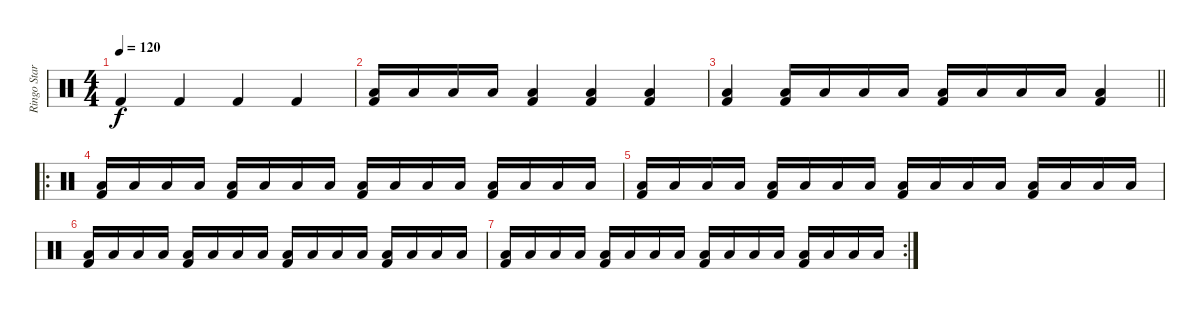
\track ("Ringo Star's drums" "Ringo Star") {instrument percussion}
\staff {score}
\articulation defaults
\ts (4 4)
\tempo 120
\clef neutral
\ks c "Kick (hit) 2".4{dy f} "Kick (hit) 2".4 "Kick (hit) 2".4 "Kick (hit) 2".4
|
("Low Floor Tom (hit)" "Kick (hit) 2").16 "Low Floor Tom (hit)".16 "Low Floor Tom (hit)".16 "Low Floor Tom (hit)".16 ("Low Floor Tom (hit)" "Kick (hit) 2").4 ("Low Floor Tom (hit)" "Kick (hit) 2").4 ("Low Floor Tom (hit)" "Kick (hit) 2").4 |
\barLineRight lightlight
("Low Floor Tom (hit)" "Kick (hit) 2").4 ("Low Floor Tom (hit)" "Kick (hit) 2").16 "Low Floor Tom (hit)".16 "Low Floor Tom (hit)".16 "Low Floor Tom (hit)".16 ("Low Floor Tom (hit)" "Kick (hit) 2").16 "Low Floor Tom (hit)".16 "Low Floor Tom (hit)".16 "Low Floor Tom (hit)".16 ("Low Floor Tom (hit)" "Kick (hit) 2").4 |
\ro
("Low Floor Tom (hit)" "Kick (hit) 2").16 "Low Floor Tom (hit)".16 "Low Floor Tom (hit)".16 "Low Floor Tom (hit)".16 ("Low Floor Tom (hit)" "Kick (hit) 2").16 "Low Floor Tom (hit)".16 "Low Floor Tom (hit)".16 "Low Floor Tom (hit)".16 ("Low Floor Tom (hit)" "Kick (hit) 2").16 "Low Floor Tom (hit)".16 "Low Floor Tom (hit)".16 "Low Floor Tom (hit)".16 ("Low Floor Tom (hit)" "Kick (hit) 2").16 "Low Floor Tom (hit)".16 "Low Floor Tom (hit)".16 "Low Floor Tom (hit)".16 |
("Low Floor Tom (hit)" "Kick (hit) 2").16 "Low Floor Tom (hit)".16 "Low Floor Tom (hit)".16 "Low Floor Tom (hit)".16 ("Low Floor Tom (hit)" "Kick (hit) 2").16 "Low Floor Tom (hit)".16 "Low Floor Tom (hit)".16 "Low Floor Tom (hit)".16 ("Low Floor Tom (hit)" "Kick (hit) 2").16 "Low Floor Tom (hit)".16 "Low Floor Tom (hit)".16 "Low Floor Tom (hit)".16 ("Low Floor Tom (hit)" "Kick (hit) 2").16 "Low Floor Tom (hit)".16 "Low Floor Tom (hit)".16 "Low Floor Tom (hit)".16 |
("Low Floor Tom (hit)" "Kick (hit) 2").16 "Low Floor Tom (hit)".16 "Low Floor Tom (hit)".16 "Low Floor Tom (hit)".16 ("Low Floor Tom (hit)" "Kick (hit) 2").16 "Low Floor Tom (hit)".16 "Low Floor Tom (hit)".16 "Low Floor Tom (hit)".16 ("Low Floor Tom (hit)" "Kick (hit) 2").16 "Low Floor Tom (hit)".16 "Low Floor Tom (hit)".16 "Low Floor Tom (hit)".16 ("Low Floor Tom (hit)" "Kick (hit) 2").16 "Low Floor Tom (hit)".16 "Low Floor Tom (hit)".16 "Low Floor Tom (hit)".16 |
\rc 2
("Low Floor Tom (hit)" "Kick (hit) 2").16 "Low Floor Tom (hit)".16 "Low Floor Tom (hit)".16 "Low Floor Tom (hit)".16 ("Low Floor Tom (hit)" "Kick (hit) 2").16 "Low Floor Tom (hit)".16 "Low Floor Tom (hit)".16 "Low Floor Tom (hit)".16 ("Low Floor Tom (hit)" "Kick (hit) 2").16 "Low Floor Tom (hit)".16 "Low Floor Tom (hit)".16 "Low Floor Tom (hit)".16 ("Low Floor Tom (hit)" "Kick (hit) 2").16 "Low Floor Tom (hit)".16 "Low Floor Tom (hit)".16 "Low Floor Tom (hit)".16
